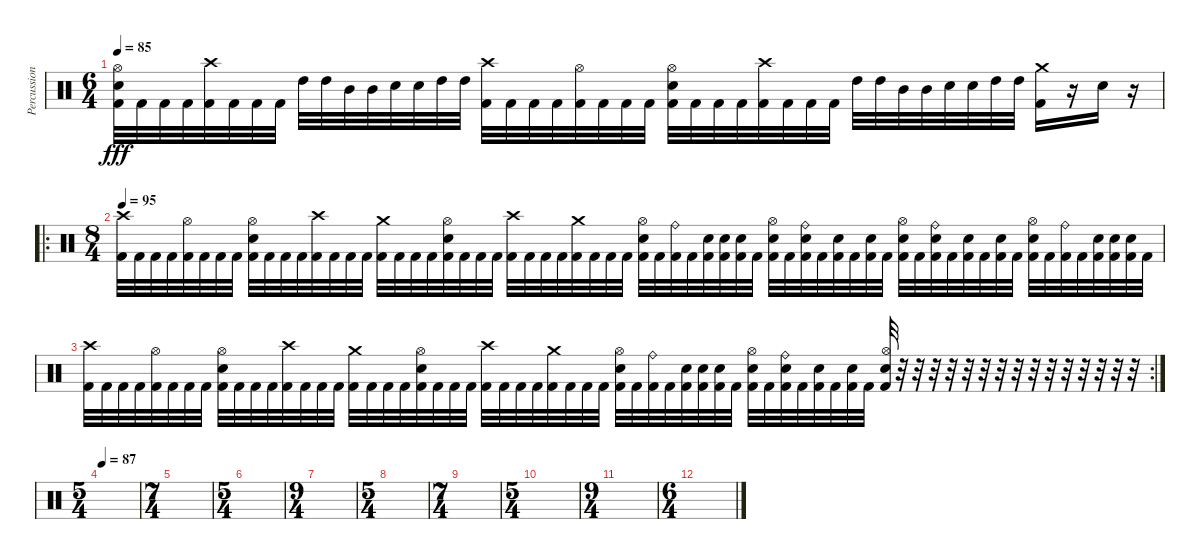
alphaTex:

\track ("Percussion" "Percussion") {mute instrument percussion}
\staff {score}
\articulation defaults
\ts (6 4)
\tempo 85
\clef neutral
\ks c
("Electric Snare (hit)" "Hi-Hat (open)" "Kick (hit) 2").32{dy fff} "Kick (hit) 2".32 "Kick (hit) 2".32 "Kick (hit) 2".32 ("Crash high (hit)" "Kick (hit) 2").32 "Kick (hit) 2".32 "Kick (hit) 2".32 "Kick (hit) 2".32 "High Tom (hit)".32 "High Tom (hit)".32 "Mid Tom (hit)".32 "Mid Tom (hit)".32 "Electric Snare (hit)".32 "Electric Snare (hit)".32 "High Tom (hit)".32 "High Tom (hit)".32 ("Crash high (hit)" "Kick (hit) 2").32 "Kick (hit) 2".32 "Kick (hit) 2".32 "Kick (hit) 2".32 ("Hi-Hat (open)" "Kick (hit) 2").32 "Kick (hit) 2".32 "Kick (hit) 2".32 "Kick (hit) 2".32 ("Electric Snare (hit)" "Hi-Hat (open)" "Kick (hit) 2").32 "Kick (hit) 2".32 "Kick (hit) 2".32 "Kick (hit) 2".32 ("Crash high (hit)" "Kick (hit) 2").32 "Kick (hit) 2".32 "Kick (hit) 2".32 "Kick (hit) 2".32 "High Tom (hit)".32 "High Tom (hit)".32 "Mid Tom (hit)".32 "Mid Tom (hit)".32 "Electric Snare (hit)".32 "Electric Snare (hit)".32 "High Tom (hit)".32 "High Tom (hit)".32 ("Crash medium (hit)" "Kick (hit) 2").16 r.16 "Electric Snare (hit)".16 r.16 |
\ro
\ts (8 4)
\tempo 95
("Crash high (hit)" "Kick (hit) 2").32 "Kick (hit) 2".32 "Kick (hit) 2".32 "Kick (hit) 2".32 ("Hi-Hat (open)" "Kick (hit) 2").32 "Kick (hit) 2".32 "Kick (hit) 2".32 "Kick (hit) 2".32 ("Electric Snare (hit)" "Hi-Hat (open)" "Kick (hit) 2").32 "Kick (hit) 2".32 "Kick (hit) 2".32 "Kick (hit) 2".32 ("Crash high (hit)" "Kick (hit) 2").32 "Kick (hit) 2".32 "Kick (hit) 2".32 "Kick (hit) 2".32 ("Crash medium (hit)" "Kick (hit) 2").32 "Kick (hit) 2".32 "Kick (hit) 2".32 "Kick (hit) 2".32 ("Electric Snare (hit)" "Hi-Hat (open)" "Kick (hit) 2").32 "Kick (hit) 2".32 "Kick (hit) 2".32 "Kick (hit) 2".32 ("Crash high (hit)" "Kick (hit) 2").32 "Kick (hit) 2".32 "Kick (hit) 2".32 "Kick (hit) 2".32 ("Crash medium (hit)" "Kick (hit) 2").32 "Kick (hit) 2".32 "Kick (hit) 2".32 "Kick (hit) 2".32 ("Electric Snare (hit)" "Hi-Hat (open)" "Kick (hit) 2").32 "Kick (hit) 2".32 ("Ride (bell)" "Kick (hit) 2").32 "Kick (hit) 2".32 ("Electric Snare (hit)" "Kick (hit) 2").32 ("Electric Snare (hit)" "Kick (hit) 2").32 ("Electric Snare (hit)" "Kick (hit) 2").32 "Kick (hit) 2".32 ("Electric Snare (hit)" "Hi-Hat (open)" "Kick (hit) 2").32 "Kick (hit) 2".32 ("Ride (bell)" "Electric Snare (hit)" "Kick (hit) 2").32 "Kick (hit) 2".32 ("Electric Snare (hit)" "Kick (hit) 2").32 "Kick (hit) 2".32 ("Electric Snare (hit)" "Kick (hit) 2").32 "Kick (hit) 2".32 ("Electric Snare (hit)" "Hi-Hat (open)" "Kick (hit) 2").32 "Kick (hit) 2".32 ("Ride (bell)" "Electric Snare (hit)" "Kick (hit) 2").32 "Kick (hit) 2".32 ("Electric Snare (hit)" "Kick (hit) 2").32 "Kick (hit) 2".32 ("Electric Snare (hit)" "Kick (hit) 2").32 "Kick (hit) 2".32 ("Electric Snare (hit)" "Hi-Hat (open)" "Kick (hit) 2").32 "Kick (hit) 2".32 ("Ride (bell)" "Kick (hit) 2").32 "Kick (hit) 2".32 ("Electric Snare (hit)" "Kick (hit) 2").32 ("Electric Snare (hit)" "Kick (hit) 2").32 ("Electric Snare (hit)" "Kick (hit) 2").32 "Kick (hit) 2".32 |
\rc 2
("Crash high (hit)" "Kick (hit) 2").32 "Kick (hit) 2".32 "Kick (hit) 2".32 "Kick (hit) 2".32 ("Hi-Hat (open)" "Kick (hit) 2").32 "Kick (hit) 2".32 "Kick (hit) 2".32 "Kick (hit) 2".32 ("Electric Snare (hit)" "Hi-Hat (open)" "Kick (hit) 2").32 "Kick (hit) 2".32 "Kick (hit) 2".32 "Kick (hit) 2".32 ("Crash high (hit)" "Kick (hit) 2").32 "Kick (hit) 2".32 "Kick (hit) 2".32 "Kick (hit) 2".32 ("Crash medium (hit)" "Kick (hit) 2").32 "Kick (hit) 2".32 "Kick (hit) 2".32 "Kick (hit) 2".32 ("Electric Snare (hit)" "Hi-Hat (open)" "Kick (hit) 2").32 "Kick (hit) 2".32 "Kick (hit) 2".32 "Kick (hit) 2".32 ("Crash high (hit)" "Kick (hit) 2").32 "Kick (hit) 2".32 "Kick (hit) 2".32 "Kick (hit) 2".32 ("Crash medium (hit)" "Kick (hit) 2").32 "Kick (hit) 2".32 "Kick (hit) 2".32 "Kick (hit) 2".32 ("Electric Snare (hit)" "Hi-Hat (open)" "Kick (hit) 2").32 "Kick (hit) 2".32 ("Ride (bell)" "Kick (hit) 2").32 "Kick (hit) 2".32 ("Electric Snare (hit)" "Kick (hit) 2").32 ("Electric Snare (hit)" "Kick (hit) 2").32 ("Electric Snare (hit)" "Kick (hit) 2").32 "Kick (hit) 2".32 ("Electric Snare (hit)" "Hi-Hat (open)" "Kick (hit) 2").32 "Kick (hit) 2".32 ("Ride (bell)" "Electric Snare (hit)" "Kick (hit) 2").32 "Kick (hit) 2".32 ("Electric Snare (hit)" "Kick (hit) 2").32 "Kick (hit) 2".32 ("Electric Snare (hit)" "Kick (hit) 2").32 "Kick (hit) 2".32 ("Electric Snare (hit)" "Hi-Hat (open)" "Kick (hit) 2").32 r.32 r.32 r.32 r.32 r.32 r.32 r.32 r.32 r.32 r.32 r.32 r.32 r.32 r.32 r.32 |
\ts (5 4)
\tempo 87
|
\ts (7 4)
|
\ts (5 4)
|
\ts (9 4)
|
\ts (5 4)
|
\ts (7 4)
|
\ts (5 4)
|
\ts (9 4)
|
\ts (6 4)
